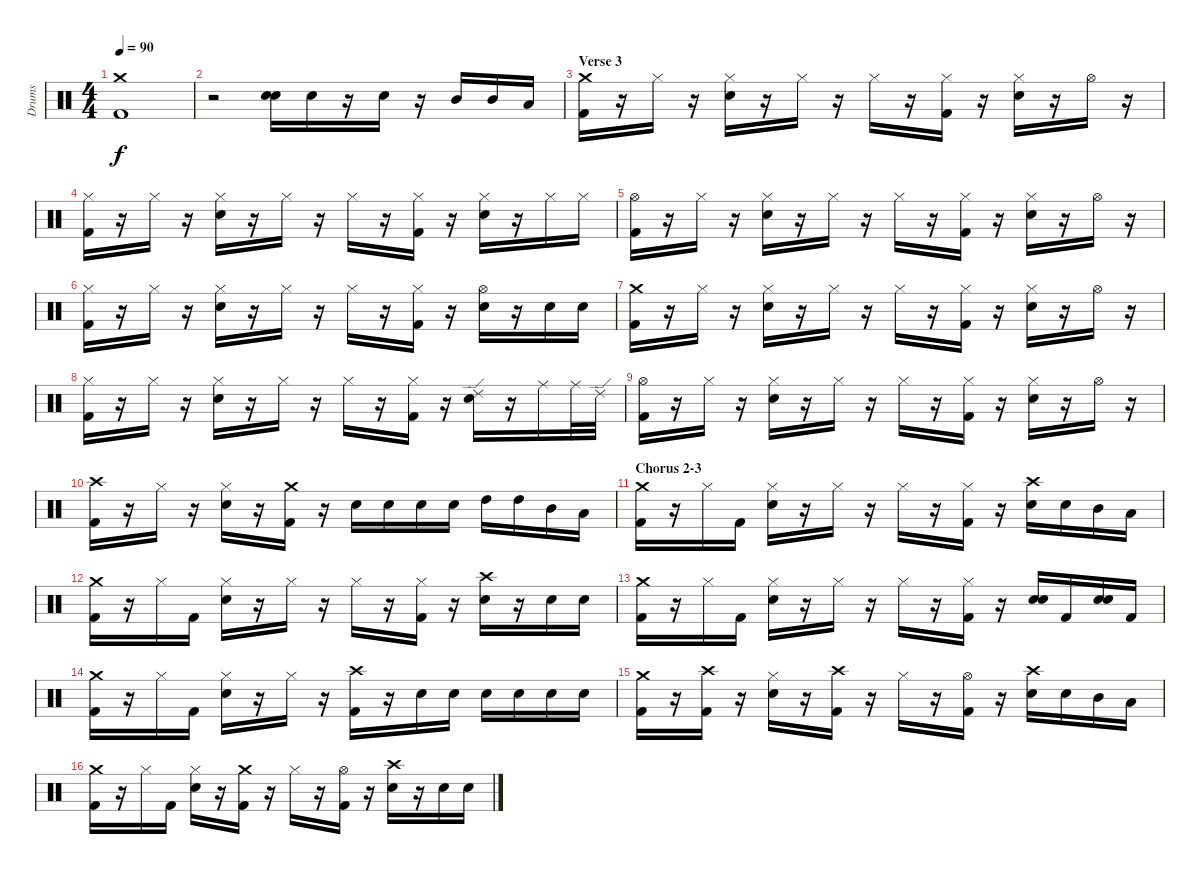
\track ("Drums" "Drums") {instrument percussion}
\staff {score}
\articulation defaults
\ts (4 4)
\tempo 90
\clef neutral
\ks c
("Crash medium (hit)" "Kick (hit) 2").1{dy f} |
r.2 ("Electric Snare (hit)" "Electric Snare (hit)").16{bd 120} "Electric Snare (hit)".16 r.16 "Electric Snare (hit)".16 r.16 "Mid Tom (hit)".16 "Mid Tom (hit)".16 "Low Tom (hit)".16 |
\section ("" "Verse 3")
("Crash medium (hit)" "Kick (hit) 2").16 r.16 "Hi-Hat (closed)".16 r.16 ("Hi-Hat (closed)" "Electric Snare (hit)").16 r.16 "Hi-Hat (closed)".16 r.16 "Hi-Hat (closed)".16 r.16 ("Hi-Hat (closed)" "Kick (hit) 2").16 r.16 ("Hi-Hat (closed)" "Electric Snare (hit)").16 r.16 "Hi-Hat (open)".16 r.16 |
("Hi-Hat (closed)" "Kick (hit) 2").16 r.16 "Hi-Hat (closed)".16 r.16 ("Hi-Hat (closed)" "Electric Snare (hit)").16 r.16 "Hi-Hat (closed)".16 r.16 "Hi-Hat (closed)".16 r.16 ("Hi-Hat (closed)" "Kick (hit) 2").16 r.16 ("Hi-Hat (closed)" "Electric Snare (hit)").16 r.16 "Hi-Hat (closed)".16 "Hi-Hat (closed)".16 |
("Hi-Hat (open)" "Kick (hit) 2").16 r.16 "Hi-Hat (closed)".16 r.16 ("Hi-Hat (closed)" "Electric Snare (hit)").16 r.16 "Hi-Hat (closed)".16 r.16 "Hi-Hat (closed)".16 r.16 ("Hi-Hat (closed)" "Kick (hit) 2").16 r.16 ("Hi-Hat (closed)" "Electric Snare (hit)").16 r.16 "Hi-Hat (open)".16 r.16 |
("Hi-Hat (closed)" "Kick (hit) 2").16 r.16 "Hi-Hat (closed)".16 r.16 ("Hi-Hat (closed)" "Electric Snare (hit)").16 r.16 "Hi-Hat (closed)".16 r.16 "Hi-Hat (closed)".16 r.16 ("Hi-Hat (closed)" "Kick (hit) 2").16 r.16 ("Hi-Hat (open)" "Electric Snare (hit)").16 r.16 "Electric Snare (hit)".16 "Electric Snare (hit)".16 |
("Crash medium (hit)" "Kick (hit) 2").16 r.16 "Hi-Hat (closed)".16 r.16 ("Hi-Hat (closed)" "Electric Snare (hit)").16 r.16 "Hi-Hat (closed)".16 r.16 "Hi-Hat (closed)".16 r.16 ("Hi-Hat (closed)" "Kick (hit) 2").16 r.16 ("Hi-Hat (closed)" "Electric Snare (hit)").16 r.16 "Hi-Hat (open)".16 r.16 |
("Hi-Hat (closed)" "Kick (hit) 2").16 r.16 "Hi-Hat (closed)".16 r.16 ("Hi-Hat (closed)" "Electric Snare (hit)").16 r.16 "Hi-Hat (closed)".16 r.16 "Hi-Hat (closed)".16 r.16 ("Hi-Hat (closed)" "Kick (hit) 2").16 r.16 ("Ride (edge) 2" "Electric Snare (hit)").16 r.16 "Ride (middle)".16 "Ride (middle)".32 "Ride (edge) 2".32 |
("Hi-Hat (open)" "Kick (hit) 2").16 r.16 "Hi-Hat (closed)".16 r.16 ("Hi-Hat (closed)" "Electric Snare (hit)").16 r.16 "Hi-Hat (closed)".16 r.16 "Hi-Hat (closed)".16 r.16 ("Hi-Hat (closed)" "Kick (hit) 2").16 r.16 ("Hi-Hat (closed)" "Electric Snare (hit)").16 r.16 "Hi-Hat (open)".16 r.16 |
("Crash high (hit)" "Kick (hit) 2").16 r.16 "Hi-Hat (closed)".16 r.16 ("Hi-Hat (closed)" "Electric Snare (hit)").16 r.16 ("Crash medium (hit)" "Kick (hit) 2").16 r.16 "Electric Snare (hit)".16 "Electric Snare (hit)".16 "Electric Snare (hit)".16 "Electric Snare (hit)".16 "High Tom (hit)".16 "High Tom (hit)".16 "Mid Tom (hit)".16 "Low Tom (hit)".16 |
\section ("" "Chorus 2-3")
("Crash medium (hit)" "Kick (hit) 2").16 r.16 "Hi-Hat (closed)".16 "Kick (hit) 2".16 ("Hi-Hat (closed)" "Electric Snare (hit)").16 r.16 "Hi-Hat (closed)".16 r.16 "Hi-Hat (closed)".16 r.16 ("Hi-Hat (closed)" "Kick (hit) 2").16 r.16 ("Crash high (hit)" "Electric Snare (hit)").16 "Electric Snare (hit)".16 "Mid Tom (hit)".16 "Low Tom (hit)".16 |
("Crash medium (hit)" "Kick (hit) 2").16 r.16 "Hi-Hat (closed)".16 "Kick (hit) 2".16 ("Hi-Hat (closed)" "Electric Snare (hit)").16 r.16 "Hi-Hat (closed)".16 r.16 "Hi-Hat (closed)".16 r.16 ("Hi-Hat (closed)" "Kick (hit) 2").16 r.16 ("Crash high (hit)" "Electric Snare (hit)").16 r.16 "Electric Snare (hit)".16 "Electric Snare (hit)".16 |
("Crash medium (hit)" "Kick (hit) 2").16 r.16 "Hi-Hat (closed)".16 "Kick (hit) 2".16 ("Hi-Hat (closed)" "Electric Snare (hit)").16 r.16 "Hi-Hat (closed)".16 r.16 "Hi-Hat (closed)".16 r.16 ("Hi-Hat (closed)" "Kick (hit) 2").16 r.16 ("Electric Snare (hit)" "Electric Snare (hit)").16{bd 120} "Kick (hit) 2".16 ("Electric Snare (hit)" "Electric Snare (hit)").16{bd 120} "Kick (hit) 2".16 |
("Crash medium (hit)" "Kick (hit) 2").16 r.16 "Hi-Hat (closed)".16 "Kick (hit) 2".16 ("Hi-Hat (closed)" "Electric Snare (hit)").16 r.16 "Hi-Hat (closed)".16 r.16 ("Crash high (hit)" "Kick (hit) 2").16 r.16 "Electric Snare (hit)".16 "Electric Snare (hit)".16 "Electric Snare (hit)".16 "Electric Snare (hit)".16 "Electric Snare (hit)".16 "Electric Snare (hit)".16 |
("Crash medium (hit)" "Kick (hit) 2").16 r.16 ("Crash high (hit)" "Kick (hit) 2").16 r.16 ("Hi-Hat (closed)" "Electric Snare (hit)").16 r.16 ("Crash high (hit)" "Kick (hit) 2").16 r.16 "Hi-Hat (closed)".16 r.16 ("Hi-Hat (open)" "Kick (hit) 2").16 r.16 ("Crash high (hit)" "Electric Snare (hit)").16 "Electric Snare (hit)".16 "Mid Tom (hit)".16 "Low Tom (hit)".16 |
("Crash medium (hit)" "Kick (hit) 2").16 r.16 "Hi-Hat (closed)".16 "Kick (hit) 2".16 ("Hi-Hat (closed)" "Electric Snare (hit)").16 r.16 ("Crash medium (hit)" "Kick (hit) 2").16 r.16 "Hi-Hat (closed)".16 r.16 ("Hi-Hat (open)" "Kick (hit) 2").16 r.16 ("Crash high (hit)" "Electric Snare (hit)").16 r.16 "Electric Snare (hit)".16 "Electric Snare (hit)".16
